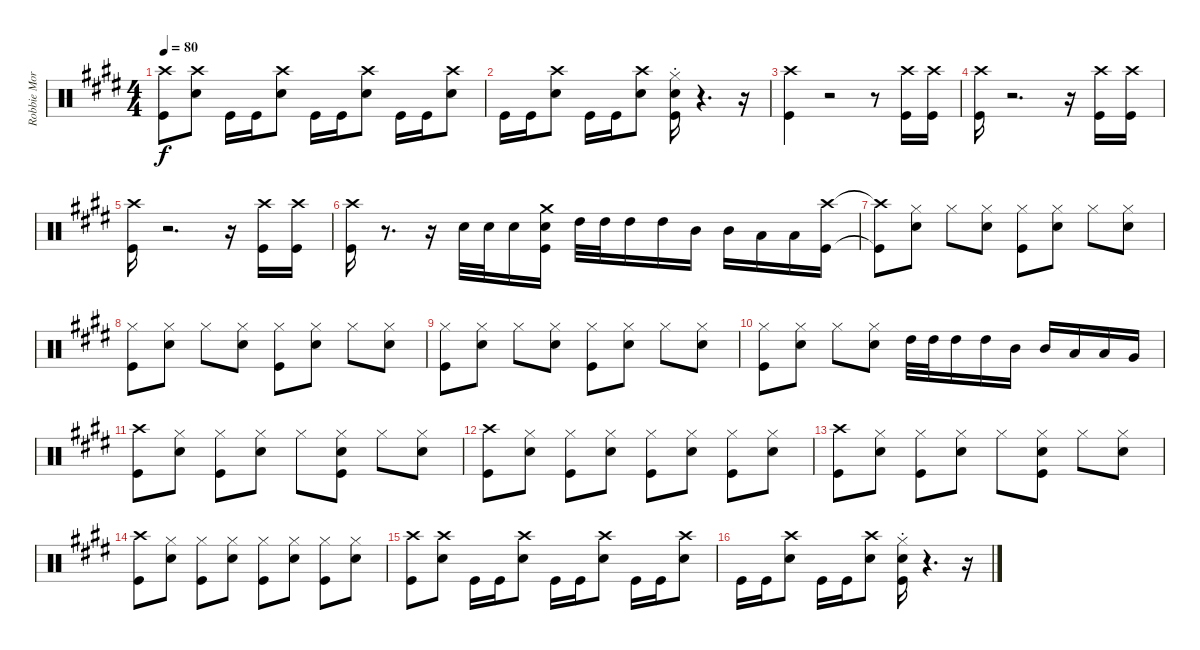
\track ("Robbie Morris Drums" "Robbie Mor") {instrument percussion}
\staff {score}
\articulation defaults
\ts (4 4)
\tempo 80
\clef neutral
\ks e
("Crash high (hit)" "Kick (hit)").8{dy f} ("Crash high (hit)" "Snare (hit) 2").8 "Kick (hit)".16 "Kick (hit)".16 ("Crash high (hit)" "Snare (hit) 2").8 "Kick (hit)".16 "Kick (hit)".16 ("Crash high (hit)" "Snare (hit) 2").8 "Kick (hit)".16 "Kick (hit)".16 ("Crash high (hit)" "Snare (hit) 2").8 |
"Kick (hit)".16 "Kick (hit)".16 ("Crash high (hit)" "Snare (hit) 2").8 "Kick (hit)".16 "Kick (hit)".16 ("Crash high (hit)" "Snare (hit) 2").8 ("Hi-Hat (closed)"{st} "Snare (hit) 2" "Kick (hit)").16 r.4{d} r.16 |
("Crash high (hit)" "Kick (hit)").4 r.2 r.8 ("Crash high (hit)" "Kick (hit)").16 ("Crash high (hit)" "Kick (hit)").16 |
("Crash high (hit)" "Kick (hit)").16 r.2{d} r.16 ("Crash high (hit)" "Kick (hit)").16 ("Crash high (hit)" "Kick (hit)").16 |
("Crash high (hit)" "Kick (hit)").16 r.2{d} r.16 ("Crash high (hit)" "Kick (hit)").16 ("Crash high (hit)" "Kick (hit)").16 |
("Crash high (hit)" "Kick (hit)").16 r.8{d} r.16 "Snare (hit) 2".32 "Snare (hit) 2".32 "Snare (hit) 2".16 ("Crash medium (hit)" "Snare (hit) 2" "Kick (hit)").16 "High Tom (hit)".32 "High Tom (hit)".32 "High Tom (hit)".16 "High Tom (hit)".16 "Mid Tom (hit)".16 "Mid Tom (hit)".16 "Low Tom (hit)".16 "Low Tom (hit)".16 ("Crash high (hit)" "Kick (hit)").16 |
("Crash high (hit)"{t} "Kick (hit)"{t}).8 ("Hi-Hat (closed)" "Snare (hit) 2").8 "Hi-Hat (closed)".8 ("Hi-Hat (closed)" "Snare (hit) 2").8 ("Hi-Hat (closed)" "Kick (hit)").8 ("Hi-Hat (closed)" "Snare (hit) 2").8 "Hi-Hat (closed)".8 ("Hi-Hat (closed)" "Snare (hit) 2").8 |
("Hi-Hat (closed)" "Kick (hit)").8 ("Hi-Hat (closed)" "Snare (hit) 2").8 "Hi-Hat (closed)".8 ("Hi-Hat (closed)" "Snare (hit) 2").8 ("Hi-Hat (closed)" "Kick (hit)").8 ("Hi-Hat (closed)" "Snare (hit) 2").8 "Hi-Hat (closed)".8 ("Hi-Hat (closed)" "Snare (hit) 2").8 |
("Hi-Hat (closed)" "Kick (hit)").8 ("Hi-Hat (closed)" "Snare (hit) 2").8 "Hi-Hat (closed)".8 ("Hi-Hat (closed)" "Snare (hit) 2").8 ("Hi-Hat (closed)" "Kick (hit)").8 ("Hi-Hat (closed)" "Snare (hit) 2").8 "Hi-Hat (closed)".8 ("Hi-Hat (closed)" "Snare (hit) 2").8 |
("Hi-Hat (closed)" "Kick (hit)").8 ("Hi-Hat (closed)" "Snare (hit) 2").8 "Hi-Hat (closed)".8 ("Hi-Hat (closed)" "Snare (hit) 2").8 "High Tom (hit)".32 "High Tom (hit)".32 "High Tom (hit)".16 "High Tom (hit)".16 "Mid Tom (hit)".16 "Mid Tom (hit)".16 "Low Tom (hit)".16 "Low Tom (hit)".16 "Very Low Tom (hit)".16 |
("Crash high (hit)" "Kick (hit)").8 ("Hi-Hat (closed)" "Snare (hit) 2").8 ("Hi-Hat (closed)" "Kick (hit)").8 ("Hi-Hat (closed)" "Snare (hit) 2").8 "Hi-Hat (closed)".8 ("Hi-Hat (closed)" "Snare (hit) 2" "Kick (hit)").8 "Hi-Hat (closed)".8 ("Hi-Hat (closed)" "Snare (hit) 2").8 |
("Crash high (hit)" "Kick (hit)").8 ("Hi-Hat (closed)" "Snare (hit) 2").8 ("Hi-Hat (closed)" "Kick (hit)").8 ("Hi-Hat (closed)" "Snare (hit) 2").8 ("Hi-Hat (closed)" "Kick (hit)").8 ("Hi-Hat (closed)" "Snare (hit) 2").8 ("Hi-Hat (closed)" "Kick (hit)").8 ("Hi-Hat (closed)" "Snare (hit) 2").8 |
("Crash high (hit)" "Kick (hit)").8 ("Hi-Hat (closed)" "Snare (hit) 2").8 ("Hi-Hat (closed)" "Kick (hit)").8 ("Hi-Hat (closed)" "Snare (hit) 2").8 "Hi-Hat (closed)".8 ("Hi-Hat (closed)" "Snare (hit) 2" "Kick (hit)").8 "Hi-Hat (closed)".8 ("Hi-Hat (closed)" "Snare (hit) 2").8 |
("Crash high (hit)" "Kick (hit)").8 ("Hi-Hat (closed)" "Snare (hit) 2").8 ("Hi-Hat (closed)" "Kick (hit)").8 ("Hi-Hat (closed)" "Snare (hit) 2").8 ("Hi-Hat (closed)" "Kick (hit)").8 ("Hi-Hat (closed)" "Snare (hit) 2").8 ("Hi-Hat (closed)" "Kick (hit)").8 ("Hi-Hat (closed)" "Snare (hit) 2").8 |
("Crash high (hit)" "Kick (hit)").8 ("Crash high (hit)" "Snare (hit) 2").8 "Kick (hit)".16 "Kick (hit)".16 ("Crash high (hit)" "Snare (hit) 2").8 "Kick (hit)".16 "Kick (hit)".16 ("Crash high (hit)" "Snare (hit) 2").8 "Kick (hit)".16 "Kick (hit)".16 ("Crash high (hit)" "Snare (hit) 2").8 |
"Kick (hit)".16 "Kick (hit)".16 ("Crash high (hit)" "Snare (hit) 2").8 "Kick (hit)".16 "Kick (hit)".16 ("Crash high (hit)" "Snare (hit) 2").8 ("Hi-Hat (closed)"{st} "Snare (hit) 2" "Kick (hit)").16 r.4{d} r.16
